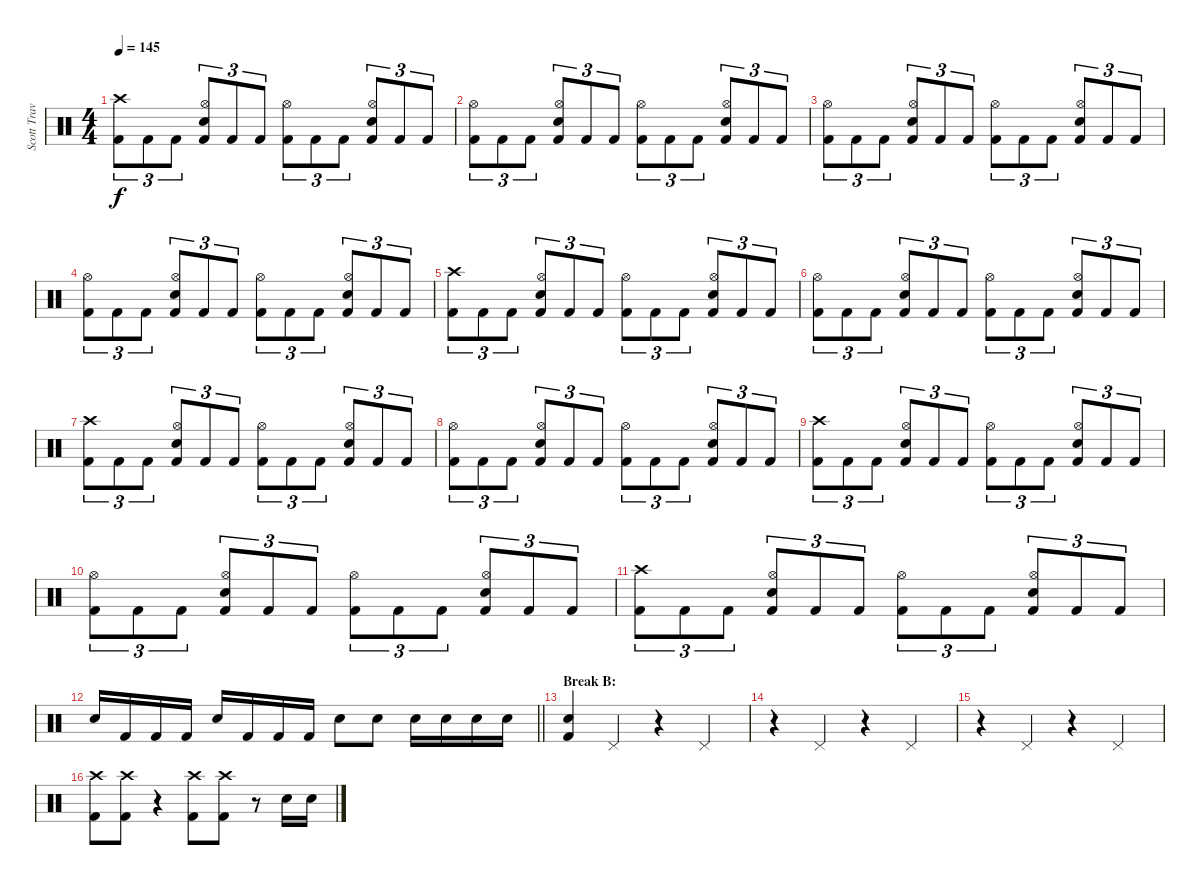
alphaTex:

\track ("Scott Travis" "Scott Trav") {instrument percussion}
\staff {score}
\articulation defaults
\ts (4 4)
\tempo 145
\clef neutral
\ks c
("Crash high (hit)" "Kick (hit) 2").8{tu (3 2) dy f} "Kick (hit) 2".8{tu (3 2)} "Kick (hit) 2".8{tu (3 2)} ("Hi-Hat (open)" "Snare (hit) 2" "Kick (hit) 2").8{tu (3 2)} "Kick (hit) 2".8{tu (3 2)} "Kick (hit) 2".8{tu (3 2)} ("Hi-Hat (open)" "Kick (hit) 2").8{tu (3 2)} "Kick (hit) 2".8{tu (3 2)} "Kick (hit) 2".8{tu (3 2)} ("Hi-Hat (open)" "Snare (hit) 2" "Kick (hit) 2").8{tu (3 2)} "Kick (hit) 2".8{tu (3 2)} "Kick (hit) 2".8{tu (3 2)} |
("Hi-Hat (open)" "Kick (hit) 2").8{tu (3 2)} "Kick (hit) 2".8{tu (3 2)} "Kick (hit) 2".8{tu (3 2)} ("Hi-Hat (open)" "Snare (hit) 2" "Kick (hit) 2").8{tu (3 2)} "Kick (hit) 2".8{tu (3 2)} "Kick (hit) 2".8{tu (3 2)} ("Hi-Hat (open)" "Kick (hit) 2").8{tu (3 2)} "Kick (hit) 2".8{tu (3 2)} "Kick (hit) 2".8{tu (3 2)} ("Hi-Hat (open)" "Snare (hit) 2" "Kick (hit) 2").8{tu (3 2)} "Kick (hit) 2".8{tu (3 2)} "Kick (hit) 2".8{tu (3 2)} |
("Hi-Hat (open)" "Kick (hit) 2").8{tu (3 2)} "Kick (hit) 2".8{tu (3 2)} "Kick (hit) 2".8{tu (3 2)} ("Hi-Hat (open)" "Snare (hit) 2" "Kick (hit) 2").8{tu (3 2)} "Kick (hit) 2".8{tu (3 2)} "Kick (hit) 2".8{tu (3 2)} ("Hi-Hat (open)" "Kick (hit) 2").8{tu (3 2)} "Kick (hit) 2".8{tu (3 2)} "Kick (hit) 2".8{tu (3 2)} ("Hi-Hat (open)" "Snare (hit) 2" "Kick (hit) 2").8{tu (3 2)} "Kick (hit) 2".8{tu (3 2)} "Kick (hit) 2".8{tu (3 2)} |
("Hi-Hat (open)" "Kick (hit) 2").8{tu (3 2)} "Kick (hit) 2".8{tu (3 2)} "Kick (hit) 2".8{tu (3 2)} ("Hi-Hat (open)" "Snare (hit) 2" "Kick (hit) 2").8{tu (3 2)} "Kick (hit) 2".8{tu (3 2)} "Kick (hit) 2".8{tu (3 2)} ("Hi-Hat (open)" "Kick (hit) 2").8{tu (3 2)} "Kick (hit) 2".8{tu (3 2)} "Kick (hit) 2".8{tu (3 2)} ("Hi-Hat (open)" "Snare (hit) 2" "Kick (hit) 2").8{tu (3 2)} "Kick (hit) 2".8{tu (3 2)} "Kick (hit) 2".8{tu (3 2)} |
("Crash high (hit)" "Kick (hit) 2").8{tu (3 2)} "Kick (hit) 2".8{tu (3 2)} "Kick (hit) 2".8{tu (3 2)} ("Hi-Hat (open)" "Snare (hit) 2" "Kick (hit) 2").8{tu (3 2)} "Kick (hit) 2".8{tu (3 2)} "Kick (hit) 2".8{tu (3 2)} ("Hi-Hat (open)" "Kick (hit) 2").8{tu (3 2)} "Kick (hit) 2".8{tu (3 2)} "Kick (hit) 2".8{tu (3 2)} ("Hi-Hat (open)" "Snare (hit) 2" "Kick (hit) 2").8{tu (3 2)} "Kick (hit) 2".8{tu (3 2)} "Kick (hit) 2".8{tu (3 2)} |
("Hi-Hat (open)" "Kick (hit) 2").8{tu (3 2)} "Kick (hit) 2".8{tu (3 2)} "Kick (hit) 2".8{tu (3 2)} ("Hi-Hat (open)" "Snare (hit) 2" "Kick (hit) 2").8{tu (3 2)} "Kick (hit) 2".8{tu (3 2)} "Kick (hit) 2".8{tu (3 2)} ("Hi-Hat (open)" "Kick (hit) 2").8{tu (3 2)} "Kick (hit) 2".8{tu (3 2)} "Kick (hit) 2".8{tu (3 2)} ("Hi-Hat (open)" "Snare (hit) 2" "Kick (hit) 2").8{tu (3 2)} "Kick (hit) 2".8{tu (3 2)} "Kick (hit) 2".8{tu (3 2)} |
("Crash high (hit)" "Kick (hit) 2").8{tu (3 2)} "Kick (hit) 2".8{tu (3 2)} "Kick (hit) 2".8{tu (3 2)} ("Hi-Hat (open)" "Snare (hit) 2" "Kick (hit) 2").8{tu (3 2)} "Kick (hit) 2".8{tu (3 2)} "Kick (hit) 2".8{tu (3 2)} ("Hi-Hat (open)" "Kick (hit) 2").8{tu (3 2)} "Kick (hit) 2".8{tu (3 2)} "Kick (hit) 2".8{tu (3 2)} ("Hi-Hat (open)" "Snare (hit) 2" "Kick (hit) 2").8{tu (3 2)} "Kick (hit) 2".8{tu (3 2)} "Kick (hit) 2".8{tu (3 2)} |
("Hi-Hat (open)" "Kick (hit) 2").8{tu (3 2)} "Kick (hit) 2".8{tu (3 2)} "Kick (hit) 2".8{tu (3 2)} ("Hi-Hat (open)" "Snare (hit) 2" "Kick (hit) 2").8{tu (3 2)} "Kick (hit) 2".8{tu (3 2)} "Kick (hit) 2".8{tu (3 2)} ("Hi-Hat (open)" "Kick (hit) 2").8{tu (3 2)} "Kick (hit) 2".8{tu (3 2)} "Kick (hit) 2".8{tu (3 2)} ("Hi-Hat (open)" "Snare (hit) 2" "Kick (hit) 2").8{tu (3 2)} "Kick (hit) 2".8{tu (3 2)} "Kick (hit) 2".8{tu (3 2)} |
("Crash high (hit)" "Kick (hit) 2").8{tu (3 2)} "Kick (hit) 2".8{tu (3 2)} "Kick (hit) 2".8{tu (3 2)} ("Hi-Hat (open)" "Snare (hit) 2" "Kick (hit) 2").8{tu (3 2)} "Kick (hit) 2".8{tu (3 2)} "Kick (hit) 2".8{tu (3 2)} ("Hi-Hat (open)" "Kick (hit) 2").8{tu (3 2)} "Kick (hit) 2".8{tu (3 2)} "Kick (hit) 2".8{tu (3 2)} ("Hi-Hat (open)" "Snare (hit) 2" "Kick (hit) 2").8{tu (3 2)} "Kick (hit) 2".8{tu (3 2)} "Kick (hit) 2".8{tu (3 2)} |
("Hi-Hat (open)" "Kick (hit) 2").8{tu (3 2)} "Kick (hit) 2".8{tu (3 2)} "Kick (hit) 2".8{tu (3 2)} ("Hi-Hat (open)" "Snare (hit) 2" "Kick (hit) 2").8{tu (3 2)} "Kick (hit) 2".8{tu (3 2)} "Kick (hit) 2".8{tu (3 2)} ("Hi-Hat (open)" "Kick (hit) 2").8{tu (3 2)} "Kick (hit) 2".8{tu (3 2)} "Kick (hit) 2".8{tu (3 2)} ("Hi-Hat (open)" "Snare (hit) 2" "Kick (hit) 2").8{tu (3 2)} "Kick (hit) 2".8{tu (3 2)} "Kick (hit) 2".8{tu (3 2)} |
("Crash high (hit)" "Kick (hit) 2").8{tu (3 2)} "Kick (hit) 2".8{tu (3 2)} "Kick (hit) 2".8{tu (3 2)} ("Hi-Hat (open)" "Snare (hit) 2" "Kick (hit) 2").8{tu (3 2)} "Kick (hit) 2".8{tu (3 2)} "Kick (hit) 2".8{tu (3 2)} ("Hi-Hat (open)" "Kick (hit) 2").8{tu (3 2)} "Kick (hit) 2".8{tu (3 2)} "Kick (hit) 2".8{tu (3 2)} ("Hi-Hat (open)" "Snare (hit) 2" "Kick (hit) 2").8{tu (3 2)} "Kick (hit) 2".8{tu (3 2)} "Kick (hit) 2".8{tu (3 2)} |
\barLineRight lightlight "Snare (hit) 2".16 "Kick (hit) 2".16 "Kick (hit) 2".16 "Kick (hit) 2".16 "Snare (hit) 2".16 "Kick (hit) 2".16 "Kick (hit) 2".16 "Kick (hit) 2".16 "Snare (hit) 2".8 "Snare (hit) 2".8 "Snare (hit) 2".16 "Snare (hit) 2".16 "Snare (hit) 2".16 "Snare (hit) 2".16
|
\section ("" "Break B:")
("Snare (hit) 2" "Kick (hit) 2").4 "Pedal Hi-Hat (hit)".4 r.4 "Pedal Hi-Hat (hit)".4 |
r.4 "Pedal Hi-Hat (hit)".4 r.4 "Pedal Hi-Hat (hit)".4 |
r.4 "Pedal Hi-Hat (hit)".4 r.4 "Pedal Hi-Hat (hit)".4 |
("Crash high (hit)" "Kick (hit) 2").8 ("Crash high (hit)" "Kick (hit) 2").8 r.4 ("Crash high (hit)" "Kick (hit) 2").8 ("Crash high (hit)" "Kick (hit) 2").8 r.8 "Snare (hit) 2".16 "Snare (hit) 2".16
